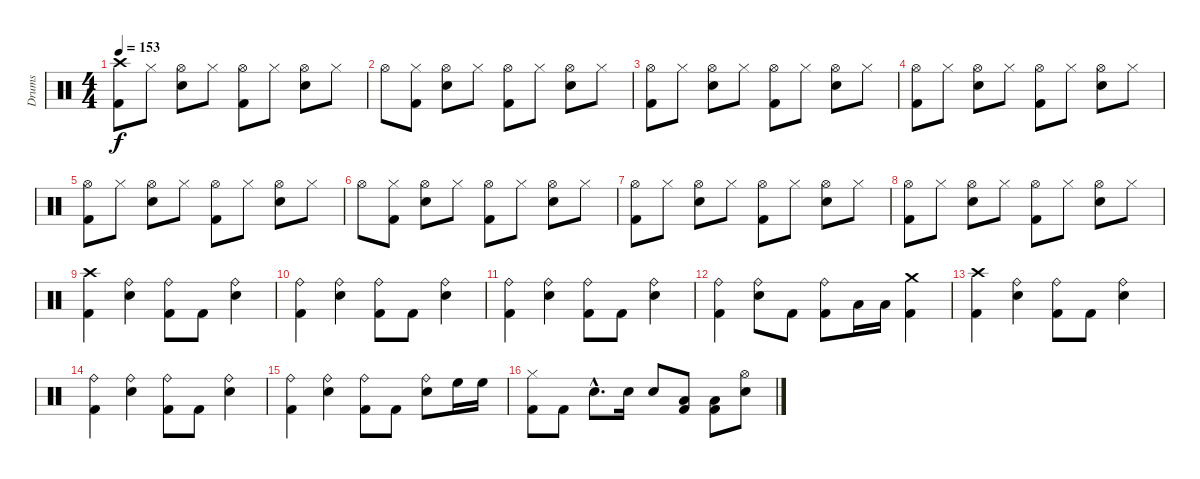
\track ("Drums" "Drums") {instrument percussion}
\staff {score}
\articulation defaults
\ts (4 4)
\tempo 153
\clef neutral
\ks c
("Crash high (hit)" "Kick (hit) 2").8{dy f} "Hi-Hat (closed)".8 ("Hi-Hat (open)" "Electric Snare (hit)").8 "Hi-Hat (closed)".8 ("Hi-Hat (open)" "Kick (hit) 2").8 "Hi-Hat (closed)".8 ("Hi-Hat (open)" "Electric Snare (hit)").8 "Hi-Hat (closed)".8 |
"Hi-Hat (open)".8 ("Hi-Hat (closed)" "Kick (hit) 2").8 ("Hi-Hat (open)" "Electric Snare (hit)").8 "Hi-Hat (closed)".8 ("Hi-Hat (open)" "Kick (hit) 2").8 "Hi-Hat (closed)".8 ("Hi-Hat (open)" "Electric Snare (hit)").8 "Hi-Hat (closed)".8 |
("Hi-Hat (open)" "Kick (hit) 2").8 "Hi-Hat (closed)".8 ("Hi-Hat (open)" "Electric Snare (hit)").8 "Hi-Hat (closed)".8 ("Hi-Hat (open)" "Kick (hit) 2").8 "Hi-Hat (closed)".8 ("Hi-Hat (open)" "Electric Snare (hit)").8 "Hi-Hat (closed)".8 |
("Hi-Hat (open)" "Kick (hit) 2").8 "Hi-Hat (closed)".8 ("Hi-Hat (open)" "Electric Snare (hit)").8 "Hi-Hat (closed)".8 ("Hi-Hat (open)" "Kick (hit) 2").8 "Hi-Hat (closed)".8 ("Hi-Hat (open)" "Electric Snare (hit)").8 "Hi-Hat (closed)".8 |
("Hi-Hat (open)" "Kick (hit) 2").8 "Hi-Hat (closed)".8 ("Hi-Hat (open)" "Electric Snare (hit)").8 "Hi-Hat (closed)".8 ("Hi-Hat (open)" "Kick (hit) 2").8 "Hi-Hat (closed)".8 ("Hi-Hat (open)" "Electric Snare (hit)").8 "Hi-Hat (closed)".8 |
"Hi-Hat (open)".8 ("Hi-Hat (closed)" "Kick (hit) 2").8 ("Hi-Hat (open)" "Electric Snare (hit)").8 "Hi-Hat (closed)".8 ("Hi-Hat (open)" "Kick (hit) 2").8 "Hi-Hat (closed)".8 ("Hi-Hat (open)" "Electric Snare (hit)").8 "Hi-Hat (closed)".8 |
("Hi-Hat (open)" "Kick (hit) 2").8 "Hi-Hat (closed)".8 ("Hi-Hat (open)" "Electric Snare (hit)").8 "Hi-Hat (closed)".8 ("Hi-Hat (open)" "Kick (hit) 2").8 "Hi-Hat (closed)".8 ("Hi-Hat (open)" "Electric Snare (hit)").8 "Hi-Hat (closed)".8 |
("Hi-Hat (open)" "Kick (hit) 2").8 "Hi-Hat (closed)".8 ("Hi-Hat (open)" "Electric Snare (hit)").8 "Hi-Hat (closed)".8 ("Hi-Hat (open)" "Kick (hit) 2").8 "Hi-Hat (closed)".8 ("Hi-Hat (open)" "Electric Snare (hit)").8 "Hi-Hat (closed)".8 |
("Crash high (hit)" "Kick (hit) 2").4 ("Ride (bell)" "Electric Snare (hit)").4 ("Ride (bell)" "Kick (hit) 2").8 "Kick (hit) 2".8 ("Ride (bell)" "Electric Snare (hit)").4 |
("Ride (bell)" "Kick (hit) 2").4 ("Ride (bell)" "Electric Snare (hit)").4 ("Ride (bell)" "Kick (hit) 2").8 "Kick (hit) 2".8 ("Ride (bell)" "Electric Snare (hit)").4 |
("Ride (bell)" "Kick (hit) 2").4 ("Ride (bell)" "Electric Snare (hit)").4 ("Ride (bell)" "Kick (hit) 2").8 "Kick (hit) 2".8 ("Ride (bell)" "Electric Snare (hit)").4 |
("Ride (bell)" "Kick (hit) 2").4 ("Ride (bell)" "Electric Snare (hit)").8 "Kick (hit) 2".8 ("Ride (bell)" "Kick (hit) 2").8 "Low Tom (hit)".16 "Low Tom (hit)".16 ("Crash medium (hit)" "Kick (hit) 2").4 |
("Crash high (hit)" "Kick (hit) 2").4 ("Ride (bell)" "Electric Snare (hit)").4 ("Ride (bell)" "Kick (hit) 2").8 "Kick (hit) 2".8 ("Ride (bell)" "Electric Snare (hit)").4 |
("Ride (bell)" "Kick (hit) 2").4 ("Ride (bell)" "Electric Snare (hit)").4 ("Ride (bell)" "Kick (hit) 2").8 "Kick (hit) 2".8 ("Ride (bell)" "Electric Snare (hit)").4 |
("Ride (bell)" "Kick (hit) 2").4 ("Ride (bell)" "Electric Snare (hit)").4 ("Ride (bell)" "Kick (hit) 2").8 "Kick (hit) 2".8 ("Ride (bell)" "Electric Snare (hit)").8 "High Floor Tom (hit)".16 "High Floor Tom (hit)".16 |
("Hi-Hat (closed)" "Kick (hit) 2").8 "Kick (hit) 2".8 "Electric Snare (hit)"{hac}.8{d} "Electric Snare (hit)".16 "Electric Snare (hit)".8 ("Low Tom (hit)" "Kick (hit) 2").8 ("Low Tom (hit)" "Kick (hit) 2").8 ("Hi-Hat (open)" "Electric Snare (hit)").8
